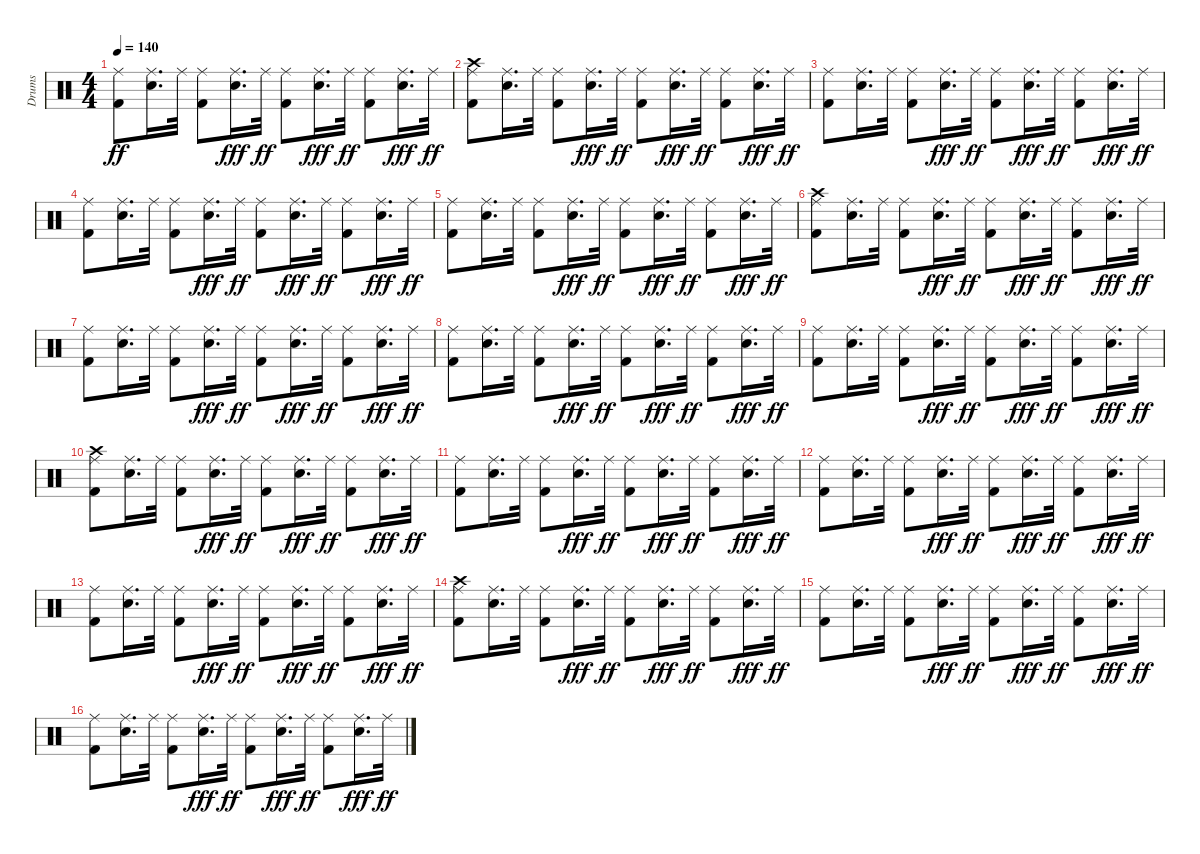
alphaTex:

\track ("Drums" "Drums") {instrument percussion}
\staff {score}
\articulation defaults
\ts (4 4)
\tempo 140
\clef neutral
\ks c
("Kick (hit) 2" "Ride (middle)").8{dy ff} ("Ride (middle)" "Snare (hit) 2").16{d} "Ride (middle)".32 ("Kick (hit) 2" "Ride (middle)").8 ("Ride (middle)" "Snare (hit) 2").16{d dy fff} "Ride (middle)".32{dy ff} ("Kick (hit) 2" "Ride (middle)").8 ("Ride (middle)" "Snare (hit) 2").16{d dy fff} "Ride (middle)".32{dy ff} ("Kick (hit) 2" "Ride (middle)").8 ("Ride (middle)" "Snare (hit) 2").16{d dy fff} "Ride (middle)".32{dy ff} |
("Kick (hit) 2" "Crash high (hit)" "Ride (middle)").8 ("Ride (middle)" "Snare (hit) 2").16{d} "Ride (middle)".32 ("Kick (hit) 2" "Ride (middle)").8 ("Ride (middle)" "Snare (hit) 2").16{d dy fff} "Ride (middle)".32{dy ff} ("Kick (hit) 2" "Ride (middle)").8 ("Ride (middle)" "Snare (hit) 2").16{d dy fff} "Ride (middle)".32{dy ff} ("Kick (hit) 2" "Ride (middle)").8 ("Ride (middle)" "Snare (hit) 2").16{d dy fff} "Ride (middle)".32{dy ff} |
("Kick (hit) 2" "Ride (middle)").8 ("Ride (middle)" "Snare (hit) 2").16{d} "Ride (middle)".32 ("Kick (hit) 2" "Ride (middle)").8 ("Ride (middle)" "Snare (hit) 2").16{d dy fff} "Ride (middle)".32{dy ff} ("Kick (hit) 2" "Ride (middle)").8 ("Ride (middle)" "Snare (hit) 2").16{d dy fff} "Ride (middle)".32{dy ff} ("Kick (hit) 2" "Ride (middle)").8 ("Ride (middle)" "Snare (hit) 2").16{d dy fff} "Ride (middle)".32{dy ff} |
("Kick (hit) 2" "Ride (middle)").8 ("Ride (middle)" "Snare (hit) 2").16{d} "Ride (middle)".32 ("Kick (hit) 2" "Ride (middle)").8 ("Ride (middle)" "Snare (hit) 2").16{d dy fff} "Ride (middle)".32{dy ff} ("Kick (hit) 2" "Ride (middle)").8 ("Ride (middle)" "Snare (hit) 2").16{d dy fff} "Ride (middle)".32{dy ff} ("Kick (hit) 2" "Ride (middle)").8 ("Ride (middle)" "Snare (hit) 2").16{d dy fff} "Ride (middle)".32{dy ff} |
("Kick (hit) 2" "Ride (middle)").8 ("Ride (middle)" "Snare (hit) 2").16{d} "Ride (middle)".32 ("Kick (hit) 2" "Ride (middle)").8 ("Ride (middle)" "Snare (hit) 2").16{d dy fff} "Ride (middle)".32{dy ff} ("Kick (hit) 2" "Ride (middle)").8 ("Ride (middle)" "Snare (hit) 2").16{d dy fff} "Ride (middle)".32{dy ff} ("Kick (hit) 2" "Ride (middle)").8 ("Ride (middle)" "Snare (hit) 2").16{d dy fff} "Ride (middle)".32{dy ff} |
("Kick (hit) 2" "Crash high (hit)" "Ride (middle)").8 ("Ride (middle)" "Snare (hit) 2").16{d} "Ride (middle)".32 ("Kick (hit) 2" "Ride (middle)").8 ("Ride (middle)" "Snare (hit) 2").16{d dy fff} "Ride (middle)".32{dy ff} ("Kick (hit) 2" "Ride (middle)").8 ("Ride (middle)" "Snare (hit) 2").16{d dy fff} "Ride (middle)".32{dy ff} ("Kick (hit) 2" "Ride (middle)").8 ("Ride (middle)" "Snare (hit) 2").16{d dy fff} "Ride (middle)".32{dy ff} |
("Kick (hit) 2" "Ride (middle)").8 ("Ride (middle)" "Snare (hit) 2").16{d} "Ride (middle)".32 ("Kick (hit) 2" "Ride (middle)").8 ("Ride (middle)" "Snare (hit) 2").16{d dy fff} "Ride (middle)".32{dy ff} ("Kick (hit) 2" "Ride (middle)").8 ("Ride (middle)" "Snare (hit) 2").16{d dy fff} "Ride (middle)".32{dy ff} ("Kick (hit) 2" "Ride (middle)").8 ("Ride (middle)" "Snare (hit) 2").16{d dy fff} "Ride (middle)".32{dy ff} |
("Kick (hit) 2" "Ride (middle)").8 ("Ride (middle)" "Snare (hit) 2").16{d} "Ride (middle)".32 ("Kick (hit) 2" "Ride (middle)").8 ("Ride (middle)" "Snare (hit) 2").16{d dy fff} "Ride (middle)".32{dy ff} ("Kick (hit) 2" "Ride (middle)").8 ("Ride (middle)" "Snare (hit) 2").16{d dy fff} "Ride (middle)".32{dy ff} ("Kick (hit) 2" "Ride (middle)").8 ("Ride (middle)" "Snare (hit) 2").16{d dy fff} "Ride (middle)".32{dy ff} |
("Kick (hit) 2" "Ride (middle)").8 ("Ride (middle)" "Snare (hit) 2").16{d} "Ride (middle)".32 ("Kick (hit) 2" "Ride (middle)").8 ("Ride (middle)" "Snare (hit) 2").16{d dy fff} "Ride (middle)".32{dy ff} ("Kick (hit) 2" "Ride (middle)").8 ("Ride (middle)" "Snare (hit) 2").16{d dy fff} "Ride (middle)".32{dy ff} ("Kick (hit) 2" "Ride (middle)").8 ("Ride (middle)" "Snare (hit) 2").16{d dy fff} "Ride (middle)".32{dy ff} |
("Kick (hit) 2" "Crash high (hit)" "Ride (middle)").8 ("Ride (middle)" "Snare (hit) 2").16{d} "Ride (middle)".32 ("Kick (hit) 2" "Ride (middle)").8 ("Ride (middle)" "Snare (hit) 2").16{d dy fff} "Ride (middle)".32{dy ff} ("Kick (hit) 2" "Ride (middle)").8 ("Ride (middle)" "Snare (hit) 2").16{d dy fff} "Ride (middle)".32{dy ff} ("Kick (hit) 2" "Ride (middle)").8 ("Ride (middle)" "Snare (hit) 2").16{d dy fff} "Ride (middle)".32{dy ff} |
("Kick (hit) 2" "Ride (middle)").8 ("Ride (middle)" "Snare (hit) 2").16{d} "Ride (middle)".32 ("Kick (hit) 2" "Ride (middle)").8 ("Ride (middle)" "Snare (hit) 2").16{d dy fff} "Ride (middle)".32{dy ff} ("Kick (hit) 2" "Ride (middle)").8 ("Ride (middle)" "Snare (hit) 2").16{d dy fff} "Ride (middle)".32{dy ff} ("Kick (hit) 2" "Ride (middle)").8 ("Ride (middle)" "Snare (hit) 2").16{d dy fff} "Ride (middle)".32{dy ff} |
("Kick (hit) 2" "Ride (middle)").8 ("Ride (middle)" "Snare (hit) 2").16{d} "Ride (middle)".32 ("Kick (hit) 2" "Ride (middle)").8 ("Ride (middle)" "Snare (hit) 2").16{d dy fff} "Ride (middle)".32{dy ff} ("Kick (hit) 2" "Ride (middle)").8 ("Ride (middle)" "Snare (hit) 2").16{d dy fff} "Ride (middle)".32{dy ff} ("Kick (hit) 2" "Ride (middle)").8 ("Ride (middle)" "Snare (hit) 2").16{d dy fff} "Ride (middle)".32{dy ff} |
("Kick (hit) 2" "Ride (middle)").8 ("Ride (middle)" "Snare (hit) 2").16{d} "Ride (middle)".32 ("Kick (hit) 2" "Ride (middle)").8 ("Ride (middle)" "Snare (hit) 2").16{d dy fff} "Ride (middle)".32{dy ff} ("Kick (hit) 2" "Ride (middle)").8 ("Ride (middle)" "Snare (hit) 2").16{d dy fff} "Ride (middle)".32{dy ff} ("Kick (hit) 2" "Ride (middle)").8 ("Ride (middle)" "Snare (hit) 2").16{d dy fff} "Ride (middle)".32{dy ff} |
("Kick (hit) 2" "Crash high (hit)" "Ride (middle)").8 ("Ride (middle)" "Snare (hit) 2").16{d} "Ride (middle)".32 ("Kick (hit) 2" "Ride (middle)").8 ("Ride (middle)" "Snare (hit) 2").16{d dy fff} "Ride (middle)".32{dy ff} ("Kick (hit) 2" "Ride (middle)").8 ("Ride (middle)" "Snare (hit) 2").16{d dy fff} "Ride (middle)".32{dy ff} ("Kick (hit) 2" "Ride (middle)").8 ("Ride (middle)" "Snare (hit) 2").16{d dy fff} "Ride (middle)".32{dy ff} |
("Kick (hit) 2" "Ride (middle)").8 ("Ride (middle)" "Snare (hit) 2").16{d} "Ride (middle)".32 ("Kick (hit) 2" "Ride (middle)").8 ("Ride (middle)" "Snare (hit) 2").16{d dy fff} "Ride (middle)".32{dy ff} ("Kick (hit) 2" "Ride (middle)").8 ("Ride (middle)" "Snare (hit) 2").16{d dy fff} "Ride (middle)".32{dy ff} ("Kick (hit) 2" "Ride (middle)").8 ("Ride (middle)" "Snare (hit) 2").16{d dy fff} "Ride (middle)".32{dy ff} |
("Kick (hit) 2" "Ride (middle)").8 ("Ride (middle)" "Snare (hit) 2").16{d} "Ride (middle)".32 ("Kick (hit) 2" "Ride (middle)").8 ("Ride (middle)" "Snare (hit) 2").16{d dy fff} "Ride (middle)".32{dy ff} ("Kick (hit) 2" "Ride (middle)").8 ("Ride (middle)" "Snare (hit) 2").16{d dy fff} "Ride (middle)".32{dy ff} ("Kick (hit) 2" "Ride (middle)").8 ("Ride (middle)" "Snare (hit) 2").16{d dy fff} "Ride (middle)".32{dy ff}
